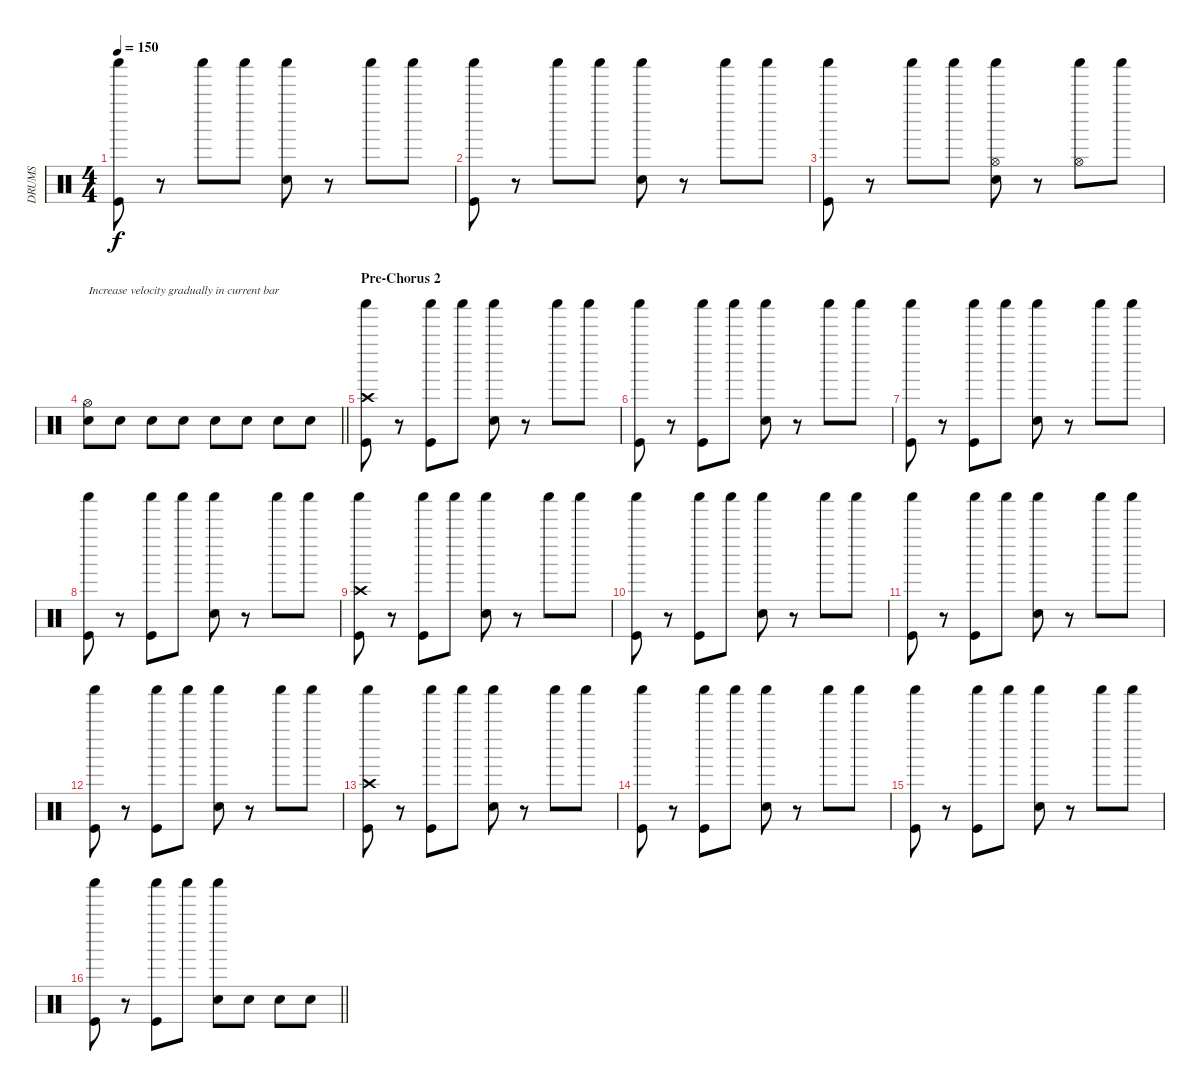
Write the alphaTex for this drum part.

\track ("DRUMS" "DRUMS") {instrument percussion}
\staff {score}
\articulation defaults
\ts (4 4)
\tempo 150
\clef neutral
\ks c
("Shaker (hit)" "Kick (hit)").8{dy f} r.8 "Shaker (hit)".8 "Shaker (hit)".8 ("Shaker (hit)" "Snare (hit) 2").8 r.8 "Shaker (hit)".8 "Shaker (hit)".8 |
("Shaker (hit)" "Kick (hit)").8 r.8 "Shaker (hit)".8 "Shaker (hit)".8 ("Shaker (hit)" "Snare (hit) 2").8 r.8 "Shaker (hit)".8 "Shaker (hit)".8 |
("Shaker (hit)" "Kick (hit)").8 r.8 "Shaker (hit)".8 "Shaker (hit)".8 ("Shaker (hit)" "Hi-Hat (open)" "Snare (hit) 2").8 r.8 ("Shaker (hit)" "Hi-Hat (open)").8 "Shaker (hit)".8 |
\barLineRight lightlight
("Hi-Hat (open)" "Snare (hit) 2").8{txt "Increase velocity gradually in current bar"} "Snare (hit) 2".8 "Snare (hit) 2".8 "Snare (hit) 2".8 "Snare (hit) 2".8 "Snare (hit) 2".8 "Snare (hit) 2".8 "Snare (hit) 2".8 |
\section ("" "Pre-Chorus 2")
("Shaker (hit)" "Crash high (hit)" "Kick (hit)").8 r.8 ("Shaker (hit)" "Kick (hit)").8 "Shaker (hit)".8 ("Shaker (hit)" "Snare (hit) 2").8 r.8 "Shaker (hit)".8 "Shaker (hit)".8 |
("Shaker (hit)" "Kick (hit)").8 r.8 ("Shaker (hit)" "Kick (hit)").8 "Shaker (hit)".8 ("Shaker (hit)" "Snare (hit) 2").8 r.8 "Shaker (hit)".8 "Shaker (hit)".8 |
("Shaker (hit)" "Kick (hit)").8 r.8 ("Shaker (hit)" "Kick (hit)").8 "Shaker (hit)".8 ("Shaker (hit)" "Snare (hit) 2").8 r.8 "Shaker (hit)".8 "Shaker (hit)".8 |
("Shaker (hit)" "Kick (hit)").8 r.8 ("Shaker (hit)" "Kick (hit)").8 "Shaker (hit)".8 ("Shaker (hit)" "Snare (hit) 2").8 r.8 "Shaker (hit)".8 "Shaker (hit)".8 |
("Shaker (hit)" "Crash high (hit)" "Kick (hit)").8 r.8 ("Shaker (hit)" "Kick (hit)").8 "Shaker (hit)".8 ("Shaker (hit)" "Snare (hit) 2").8 r.8 "Shaker (hit)".8 "Shaker (hit)".8 |
("Shaker (hit)" "Kick (hit)").8 r.8 ("Shaker (hit)" "Kick (hit)").8 "Shaker (hit)".8 ("Shaker (hit)" "Snare (hit) 2").8 r.8 "Shaker (hit)".8 "Shaker (hit)".8 |
("Shaker (hit)" "Kick (hit)").8 r.8 ("Shaker (hit)" "Kick (hit)").8 "Shaker (hit)".8 ("Shaker (hit)" "Snare (hit) 2").8 r.8 "Shaker (hit)".8 "Shaker (hit)".8 |
("Shaker (hit)" "Kick (hit)").8 r.8 ("Shaker (hit)" "Kick (hit)").8 "Shaker (hit)".8 ("Shaker (hit)" "Snare (hit) 2").8 r.8 "Shaker (hit)".8 "Shaker (hit)".8 |
("Shaker (hit)" "Crash high (hit)" "Kick (hit)").8 r.8 ("Shaker (hit)" "Kick (hit)").8 "Shaker (hit)".8 ("Shaker (hit)" "Snare (hit) 2").8 r.8 "Shaker (hit)".8 "Shaker (hit)".8 |
("Shaker (hit)" "Kick (hit)").8 r.8 ("Shaker (hit)" "Kick (hit)").8 "Shaker (hit)".8 ("Shaker (hit)" "Snare (hit) 2").8 r.8 "Shaker (hit)".8 "Shaker (hit)".8 |
("Shaker (hit)" "Kick (hit)").8 r.8 ("Shaker (hit)" "Kick (hit)").8 "Shaker (hit)".8 ("Shaker (hit)" "Snare (hit) 2").8 r.8 "Shaker (hit)".8 "Shaker (hit)".8 |
\barLineRight lightlight
("Shaker (hit)" "Kick (hit)").8 r.8 ("Shaker (hit)" "Kick (hit)").8 "Shaker (hit)".8 ("Shaker (hit)" "Snare (hit) 2").8 "Snare (hit) 2".8 "Snare (hit) 2".8 "Snare (hit) 2".8
